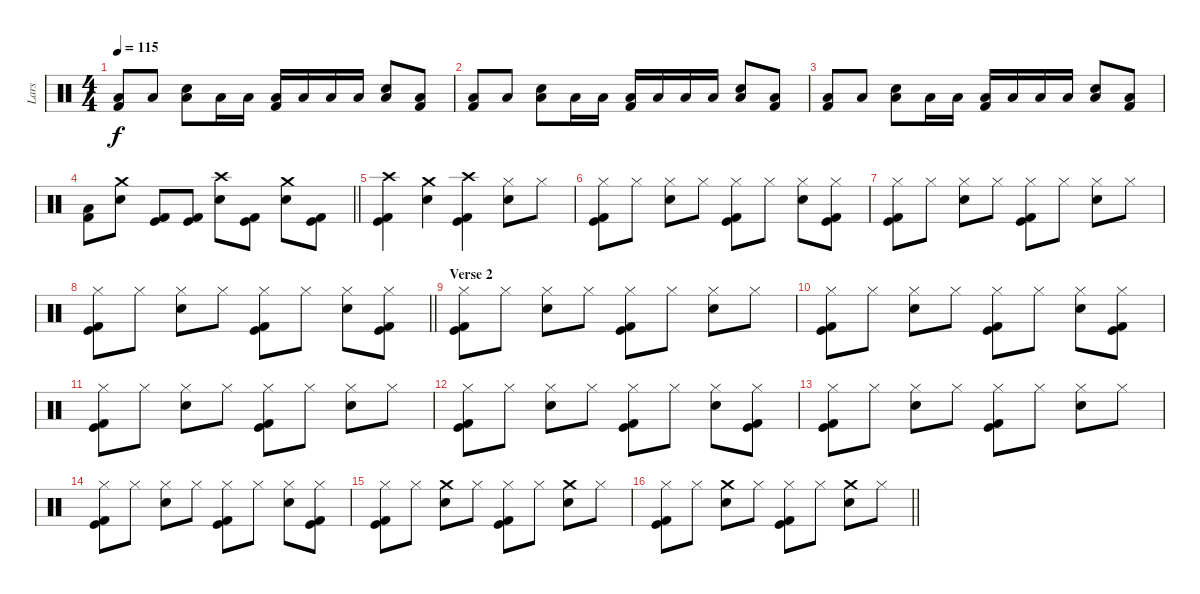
\track ("Lars" "Lars") {instrument percussion}
\staff {score}
\articulation defaults
\ts (4 4)
\section ("" "")
\tempo 115
\clef neutral
\ks c
("Low Floor Tom (hit)" "Kick (hit) 2").8{dy f} "Low Floor Tom (hit)".8 ("Electric Snare (hit)" "Low Floor Tom (hit)").8 "Low Floor Tom (hit)".16 "Low Tom (hit)".16 ("Low Floor Tom (hit)" "Kick (hit) 2").16 "Low Tom (hit)".16 "Low Floor Tom (hit)".16 "Low Tom (hit)".16 ("Electric Snare (hit)" "Low Floor Tom (hit)").8 ("Low Floor Tom (hit)" "Kick (hit) 2").8 |
("Low Floor Tom (hit)" "Kick (hit) 2").8 "Low Floor Tom (hit)".8 ("Electric Snare (hit)" "Low Floor Tom (hit)").8 "Low Floor Tom (hit)".16 "Low Tom (hit)".16 ("Low Floor Tom (hit)" "Kick (hit) 2").16 "Low Tom (hit)".16 "Low Floor Tom (hit)".16 "Low Tom (hit)".16 ("Electric Snare (hit)" "Low Floor Tom (hit)").8 ("Low Floor Tom (hit)" "Kick (hit) 2").8 |
("Low Floor Tom (hit)" "Kick (hit) 2").8 "Low Floor Tom (hit)".8 ("Electric Snare (hit)" "Low Floor Tom (hit)").8 "Low Floor Tom (hit)".16 "Low Tom (hit)".16 ("Low Floor Tom (hit)" "Kick (hit) 2").16 "Low Tom (hit)".16 "Low Floor Tom (hit)".16 "Low Tom (hit)".16 ("Electric Snare (hit)" "Low Floor Tom (hit)").8 ("Low Floor Tom (hit)" "Kick (hit) 2").8 |
\barLineRight lightlight
("Low Floor Tom (hit)" "Kick (hit) 2").8 ("Crash medium (hit)" "Electric Snare (hit)").8 ("Kick (hit)" "Kick (hit) 2").8 ("Kick (hit)" "Kick (hit) 2").8 ("Crash high (hit)" "Electric Snare (hit)").8 ("Kick (hit)" "Kick (hit) 2").8 ("Crash medium (hit)" "Electric Snare (hit)").8 ("Kick (hit)" "Kick (hit) 2").8 |
\section ("" "")
("Crash high (hit)" "Kick (hit)" "Kick (hit) 2").4 ("Crash medium (hit)" "Electric Snare (hit)").4 ("Crash high (hit)" "Kick (hit)" "Kick (hit) 2").4 ("Hi-Hat (closed)" "Electric Snare (hit)").8 "Hi-Hat (closed)".8 |
("Hi-Hat (closed)" "Kick (hit)" "Kick (hit) 2").8 "Hi-Hat (closed)".8 ("Hi-Hat (closed)" "Electric Snare (hit)").8 "Hi-Hat (closed)".8 ("Hi-Hat (closed)" "Kick (hit)" "Kick (hit) 2").8 "Hi-Hat (closed)".8 ("Hi-Hat (closed)" "Electric Snare (hit)").8 ("Hi-Hat (closed)" "Kick (hit)" "Kick (hit) 2").8 |
("Hi-Hat (closed)" "Kick (hit)" "Kick (hit) 2").8 "Hi-Hat (closed)".8 ("Hi-Hat (closed)" "Electric Snare (hit)").8 "Hi-Hat (closed)".8 ("Hi-Hat (closed)" "Kick (hit)" "Kick (hit) 2").8 "Hi-Hat (closed)".8 ("Hi-Hat (closed)" "Electric Snare (hit)").8 "Hi-Hat (closed)".8 |
\barLineRight lightlight
("Hi-Hat (closed)" "Kick (hit)" "Kick (hit) 2").8 "Hi-Hat (closed)".8 ("Hi-Hat (closed)" "Electric Snare (hit)").8 "Hi-Hat (closed)".8 ("Hi-Hat (closed)" "Kick (hit)" "Kick (hit) 2").8 "Hi-Hat (closed)".8 ("Hi-Hat (closed)" "Electric Snare (hit)").8 ("Hi-Hat (closed)" "Kick (hit)" "Kick (hit) 2").8 |
\section ("" "Verse 2")
("Hi-Hat (closed)" "Kick (hit)" "Kick (hit) 2").8 "Hi-Hat (closed)".8 ("Hi-Hat (closed)" "Electric Snare (hit)").8 "Hi-Hat (closed)".8 ("Hi-Hat (closed)" "Kick (hit)" "Kick (hit) 2").8 "Hi-Hat (closed)".8 ("Hi-Hat (closed)" "Electric Snare (hit)").8 "Hi-Hat (closed)".8 |
("Hi-Hat (closed)" "Kick (hit)" "Kick (hit) 2").8 "Hi-Hat (closed)".8 ("Hi-Hat (closed)" "Electric Snare (hit)").8 "Hi-Hat (closed)".8 ("Hi-Hat (closed)" "Kick (hit)" "Kick (hit) 2").8 "Hi-Hat (closed)".8 ("Hi-Hat (closed)" "Electric Snare (hit)").8 ("Hi-Hat (closed)" "Kick (hit)" "Kick (hit) 2").8 |
("Hi-Hat (closed)" "Kick (hit)" "Kick (hit) 2").8 "Hi-Hat (closed)".8 ("Hi-Hat (closed)" "Electric Snare (hit)").8 "Hi-Hat (closed)".8 ("Hi-Hat (closed)" "Kick (hit)" "Kick (hit) 2").8 "Hi-Hat (closed)".8 ("Hi-Hat (closed)" "Electric Snare (hit)").8 "Hi-Hat (closed)".8 |
("Hi-Hat (closed)" "Kick (hit)" "Kick (hit) 2").8 "Hi-Hat (closed)".8 ("Hi-Hat (closed)" "Electric Snare (hit)").8 "Hi-Hat (closed)".8 ("Hi-Hat (closed)" "Kick (hit)" "Kick (hit) 2").8 "Hi-Hat (closed)".8 ("Hi-Hat (closed)" "Electric Snare (hit)").8 ("Hi-Hat (closed)" "Kick (hit)" "Kick (hit) 2").8 |
("Hi-Hat (closed)" "Kick (hit)" "Kick (hit) 2").8 "Hi-Hat (closed)".8 ("Hi-Hat (closed)" "Electric Snare (hit)").8 "Hi-Hat (closed)".8 ("Hi-Hat (closed)" "Kick (hit)" "Kick (hit) 2").8 "Hi-Hat (closed)".8 ("Hi-Hat (closed)" "Electric Snare (hit)").8 "Hi-Hat (closed)".8 |
("Hi-Hat (closed)" "Kick (hit)" "Kick (hit) 2").8 "Hi-Hat (closed)".8 ("Hi-Hat (closed)" "Electric Snare (hit)").8 "Hi-Hat (closed)".8 ("Hi-Hat (closed)" "Kick (hit)" "Kick (hit) 2").8 "Hi-Hat (closed)".8 ("Hi-Hat (closed)" "Electric Snare (hit)").8 ("Hi-Hat (closed)" "Kick (hit)" "Kick (hit) 2").8 |
("Hi-Hat (closed)" "Kick (hit)" "Kick (hit) 2").8 "Hi-Hat (closed)".8 ("Crash medium (hit)" "Electric Snare (hit)").8 "Hi-Hat (closed)".8 ("Hi-Hat (closed)" "Kick (hit)" "Kick (hit) 2").8 "Hi-Hat (closed)".8 ("Crash medium (hit)" "Electric Snare (hit)").8 "Hi-Hat (closed)".8 |
\barLineRight lightlight
("Hi-Hat (closed)" "Kick (hit)" "Kick (hit) 2").8 "Hi-Hat (closed)".8 ("Crash medium (hit)" "Electric Snare (hit)").8 "Hi-Hat (closed)".8 ("Hi-Hat (closed)" "Kick (hit)" "Kick (hit) 2").8 "Hi-Hat (closed)".8 ("Crash medium (hit)" "Electric Snare (hit)").8 "Hi-Hat (closed)".8
